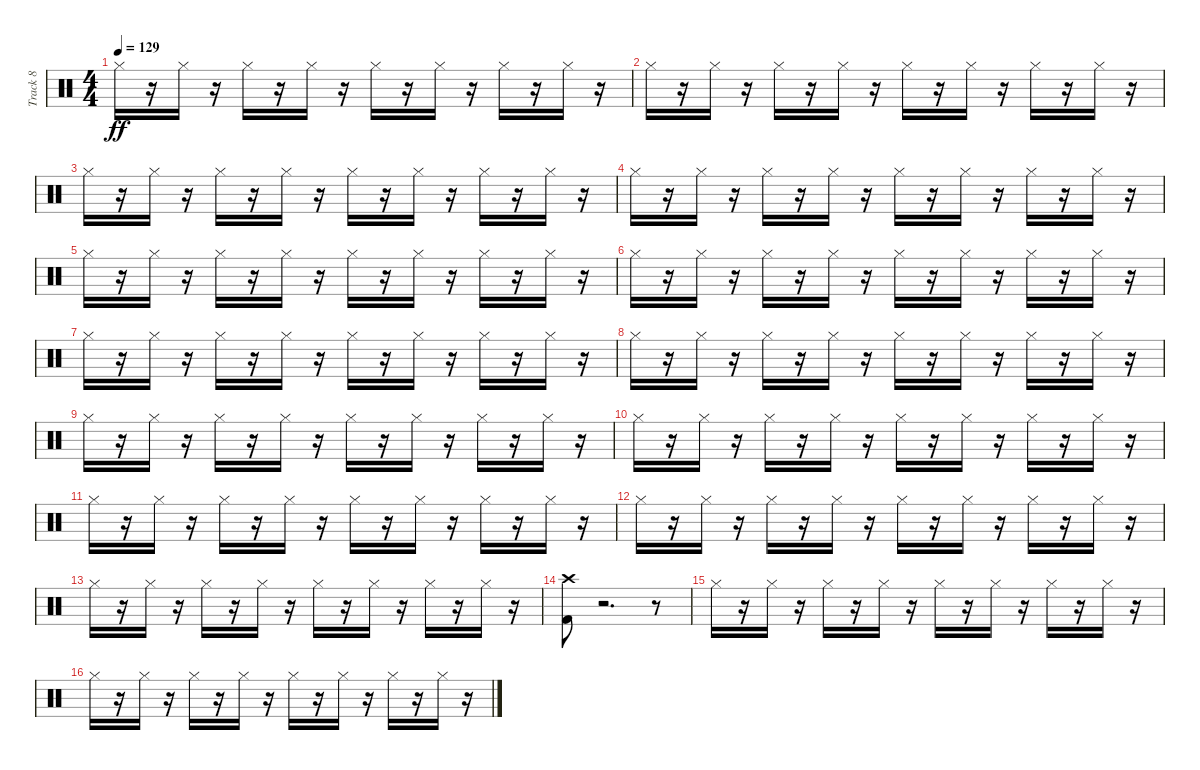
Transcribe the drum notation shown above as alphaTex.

\track ("Track 8" "Track 8") {instrument percussion}
\staff {score}
\articulation defaults
\ts (4 4)
\tempo 129
\clef neutral
\ks c "Hi-Hat (closed)".16{dy ff}
r.16 "Hi-Hat (closed)".16 r.16 "Hi-Hat (closed)".16 r.16 "Hi-Hat (closed)".16 r.16 "Hi-Hat (closed)".16 r.16 "Hi-Hat (closed)".16 r.16 "Hi-Hat (closed)".16 r.16 "Hi-Hat (closed)".16 r.16 |
"Hi-Hat (closed)".16 r.16 "Hi-Hat (closed)".16 r.16 "Hi-Hat (closed)".16 r.16 "Hi-Hat (closed)".16 r.16 "Hi-Hat (closed)".16 r.16 "Hi-Hat (closed)".16 r.16 "Hi-Hat (closed)".16 r.16 "Hi-Hat (closed)".16 r.16 |
"Hi-Hat (closed)".16 r.16 "Hi-Hat (closed)".16 r.16 "Hi-Hat (closed)".16 r.16 "Hi-Hat (closed)".16 r.16 "Hi-Hat (closed)".16 r.16 "Hi-Hat (closed)".16 r.16 "Hi-Hat (closed)".16 r.16 "Hi-Hat (closed)".16 r.16 |
"Hi-Hat (closed)".16 r.16 "Hi-Hat (closed)".16 r.16 "Hi-Hat (closed)".16 r.16 "Hi-Hat (closed)".16 r.16 "Hi-Hat (closed)".16 r.16 "Hi-Hat (closed)".16 r.16 "Hi-Hat (closed)".16 r.16 "Hi-Hat (closed)".16 r.16 |
"Hi-Hat (closed)".16 r.16 "Hi-Hat (closed)".16 r.16 "Hi-Hat (closed)".16 r.16 "Hi-Hat (closed)".16 r.16 "Hi-Hat (closed)".16 r.16 "Hi-Hat (closed)".16 r.16 "Hi-Hat (closed)".16 r.16 "Hi-Hat (closed)".16 r.16 |
"Hi-Hat (closed)".16 r.16 "Hi-Hat (closed)".16 r.16 "Hi-Hat (closed)".16 r.16 "Hi-Hat (closed)".16 r.16 "Hi-Hat (closed)".16 r.16 "Hi-Hat (closed)".16 r.16 "Hi-Hat (closed)".16 r.16 "Hi-Hat (closed)".16 r.16 |
"Hi-Hat (closed)".16 r.16 "Hi-Hat (closed)".16 r.16 "Hi-Hat (closed)".16 r.16 "Hi-Hat (closed)".16 r.16 "Hi-Hat (closed)".16 r.16 "Hi-Hat (closed)".16 r.16 "Hi-Hat (closed)".16 r.16 "Hi-Hat (closed)".16 r.16 |
"Hi-Hat (closed)".16 r.16 "Hi-Hat (closed)".16 r.16 "Hi-Hat (closed)".16 r.16 "Hi-Hat (closed)".16 r.16 "Hi-Hat (closed)".16 r.16 "Hi-Hat (closed)".16 r.16 "Hi-Hat (closed)".16 r.16 "Hi-Hat (closed)".16 r.16 |
"Hi-Hat (closed)".16 r.16 "Hi-Hat (closed)".16 r.16 "Hi-Hat (closed)".16 r.16 "Hi-Hat (closed)".16 r.16 "Hi-Hat (closed)".16 r.16 "Hi-Hat (closed)".16 r.16 "Hi-Hat (closed)".16 r.16 "Hi-Hat (closed)".16 r.16 |
"Hi-Hat (closed)".16 r.16 "Hi-Hat (closed)".16 r.16 "Hi-Hat (closed)".16 r.16 "Hi-Hat (closed)".16 r.16 "Hi-Hat (closed)".16 r.16 "Hi-Hat (closed)".16 r.16 "Hi-Hat (closed)".16 r.16 "Hi-Hat (closed)".16 r.16 |
"Hi-Hat (closed)".16 r.16 "Hi-Hat (closed)".16 r.16 "Hi-Hat (closed)".16 r.16 "Hi-Hat (closed)".16 r.16 "Hi-Hat (closed)".16 r.16 "Hi-Hat (closed)".16 r.16 "Hi-Hat (closed)".16 r.16 "Hi-Hat (closed)".16 r.16 |
"Hi-Hat (closed)".16 r.16 "Hi-Hat (closed)".16 r.16 "Hi-Hat (closed)".16 r.16 "Hi-Hat (closed)".16 r.16 "Hi-Hat (closed)".16 r.16 "Hi-Hat (closed)".16 r.16 "Hi-Hat (closed)".16 r.16 "Hi-Hat (closed)".16 r.16 |
"Hi-Hat (closed)".16 r.16 "Hi-Hat (closed)".16 r.16 "Hi-Hat (closed)".16 r.16 "Hi-Hat (closed)".16 r.16 "Hi-Hat (closed)".16 r.16 "Hi-Hat (closed)".16 r.16 "Hi-Hat (closed)".16 r.16 "Hi-Hat (closed)".16 r.16 |
("Kick (hit) 2" "Crash high (hit)").8 r.2{d} r.8 |
"Hi-Hat (closed)".16 r.16 "Hi-Hat (closed)".16 r.16 "Hi-Hat (closed)".16 r.16 "Hi-Hat (closed)".16 r.16 "Hi-Hat (closed)".16 r.16 "Hi-Hat (closed)".16 r.16 "Hi-Hat (closed)".16 r.16 "Hi-Hat (closed)".16 r.16 |
"Hi-Hat (closed)".16 r.16 "Hi-Hat (closed)".16 r.16 "Hi-Hat (closed)".16 r.16 "Hi-Hat (closed)".16 r.16 "Hi-Hat (closed)".16 r.16 "Hi-Hat (closed)".16 r.16 "Hi-Hat (closed)".16 r.16 "Hi-Hat (closed)".16 r.16
